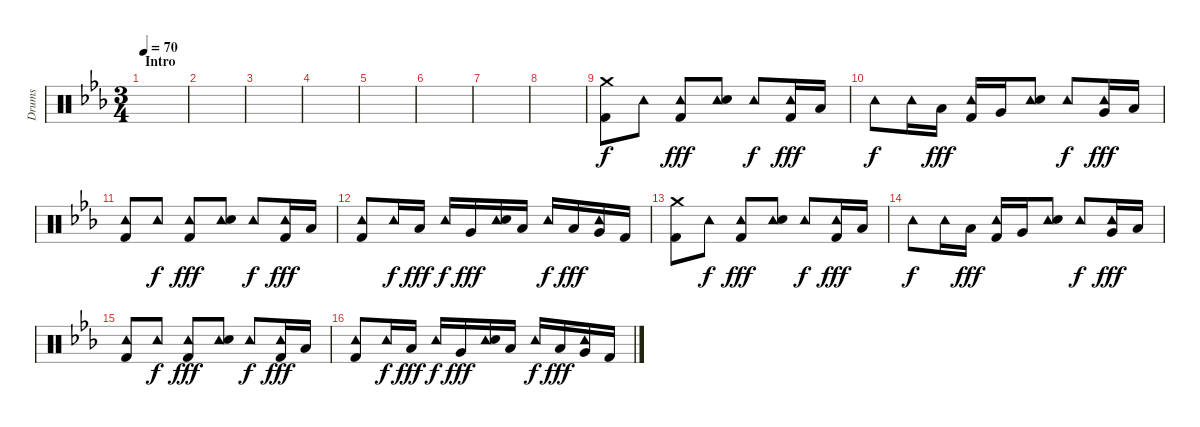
\track ("Drums" "Drums") {instrument percussion}
\staff {score}
\articulation defaults
\ts (3 4)
\section ("" "Intro")
\tempo 70
\clef neutral
\ks cminor
|
|
|
|
|
|
|
|
("Crash medium (hit)" "Kick (hit) 2").8 "Tambourine (hit)".8{dy f} ("Tambourine (hit)" "Kick (hit) 2").8{dy fff} ("Tambourine (hit)" "Snare (hit) 2").8 "Tambourine (hit)".8{dy f} ("Tambourine (hit)" "Kick (hit) 2").16{dy fff} "Low Floor Tom (hit)".16 |
"Tambourine (hit)".8{dy f} "Tambourine (hit)".16 "Low Floor Tom (hit)".16{dy fff} ("Tambourine (hit)" "Kick (hit) 2").16 "Very Low Tom (hit)".16 ("Tambourine (hit)" "Snare (hit) 2").8 "Tambourine (hit)".8{dy f} ("Tambourine (hit)" "Very Low Tom (hit)").16{dy fff} "Low Floor Tom (hit)".16 |
("Tambourine (hit)" "Kick (hit) 2").8 "Tambourine (hit)".8{dy f} ("Tambourine (hit)" "Kick (hit) 2").8{dy fff} ("Tambourine (hit)" "Snare (hit) 2").8 "Tambourine (hit)".8{dy f} ("Tambourine (hit)" "Kick (hit) 2").16{dy fff} "Low Floor Tom (hit)".16 |
("Tambourine (hit)" "Kick (hit) 2").8 "Tambourine (hit)".16{dy f} "Low Floor Tom (hit)".16{dy fff} "Tambourine (hit)".16{dy f} "Very Low Tom (hit)".16{dy fff} ("Tambourine (hit)" "Snare (hit) 2").16 "Low Floor Tom (hit)".16 "Tambourine (hit)".16{dy f} "Low Floor Tom (hit)".16{dy fff} ("Tambourine (hit)" "Very Low Tom (hit)").16 "Kick (hit) 2".16 |
("Crash medium (hit)" "Kick (hit) 2").8 "Tambourine (hit)".8{dy f} ("Tambourine (hit)" "Kick (hit) 2").8{dy fff} ("Tambourine (hit)" "Snare (hit) 2").8 "Tambourine (hit)".8{dy f} ("Tambourine (hit)" "Kick (hit) 2").16{dy fff} "Low Floor Tom (hit)".16 |
"Tambourine (hit)".8{dy f} "Tambourine (hit)".16 "Low Floor Tom (hit)".16{dy fff} ("Tambourine (hit)" "Kick (hit) 2").16 "Very Low Tom (hit)".16 ("Tambourine (hit)" "Snare (hit) 2").8 "Tambourine (hit)".8{dy f} ("Tambourine (hit)" "Very Low Tom (hit)").16{dy fff} "Low Floor Tom (hit)".16 |
("Tambourine (hit)" "Kick (hit) 2").8 "Tambourine (hit)".8{dy f} ("Tambourine (hit)" "Kick (hit) 2").8{dy fff} ("Tambourine (hit)" "Snare (hit) 2").8 "Tambourine (hit)".8{dy f} ("Tambourine (hit)" "Kick (hit) 2").16{dy fff} "Low Floor Tom (hit)".16 |
("Tambourine (hit)" "Kick (hit) 2").8 "Tambourine (hit)".16{dy f} "Low Floor Tom (hit)".16{dy fff} "Tambourine (hit)".16{dy f} "Very Low Tom (hit)".16{dy fff} ("Tambourine (hit)" "Snare (hit) 2").16 "Low Floor Tom (hit)".16 "Tambourine (hit)".16{dy f} "Low Floor Tom (hit)".16{dy fff} ("Tambourine (hit)" "Very Low Tom (hit)").16 "Kick (hit) 2".16
